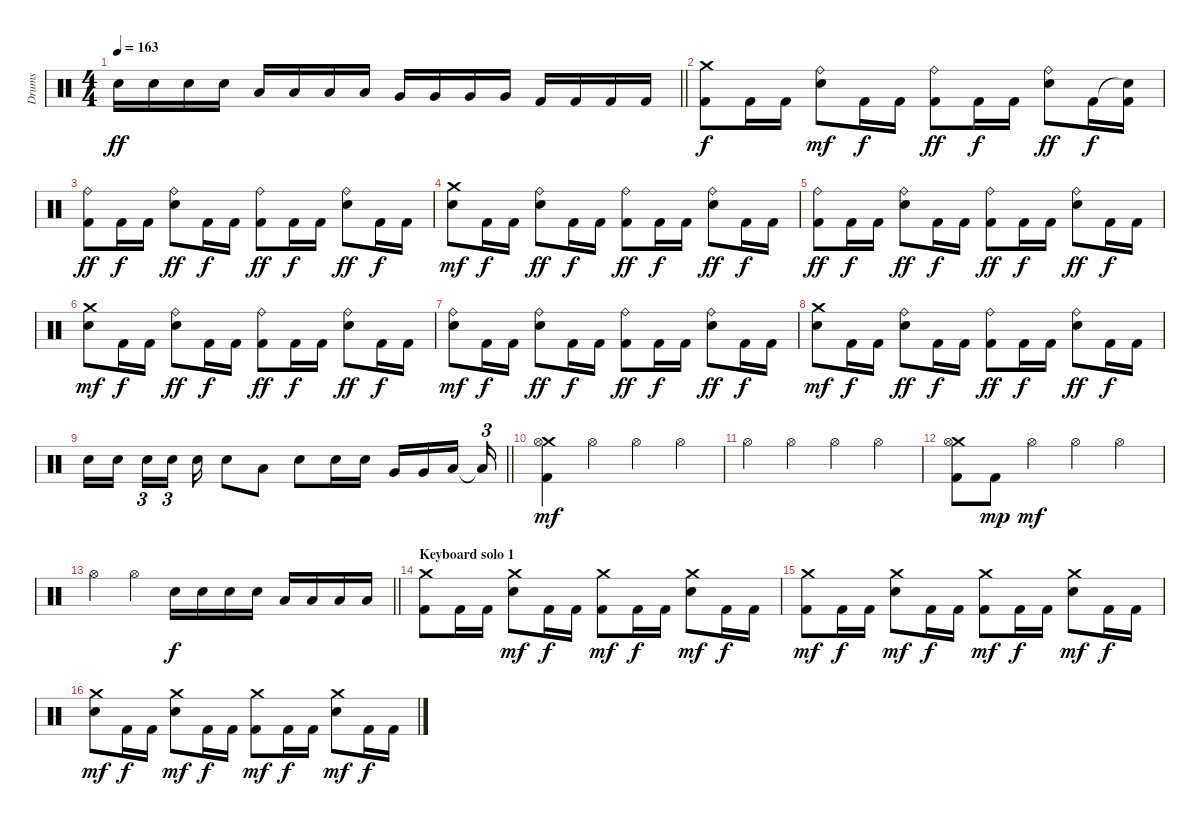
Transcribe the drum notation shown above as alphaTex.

\track ("Drums" "Drums") {instrument percussion}
\staff {score}
\articulation defaults
\ts (4 4)
\tempo 163
\clef neutral
\barLineRight lightlight
\ks c "Electric Snare (hit)".16{dy ff} "Electric Snare (hit)".16 "Electric Snare (hit)".16 "Electric Snare (hit)".16 "Low Tom (hit)".16 "Low Tom (hit)".16 "Low Tom (hit)".16 "Low Tom (hit)".16 "Very Low Tom (hit)".16 "Very Low Tom (hit)".16 "Very Low Tom (hit)".16 "Very Low Tom (hit)".16 "Kick (hit) 2".16 "Kick (hit) 2".16 "Kick (hit) 2".16 "Kick (hit) 2".16
|
("Crash medium (hit)" "Kick (hit) 2").8{dy f} "Kick (hit) 2".16 "Kick (hit) 2".16 ("Ride (bell)" "Electric Snare (hit)").8{dy mf} "Kick (hit) 2".16{dy f} "Kick (hit) 2".16 ("Ride (bell)" "Kick (hit) 2").8{dy ff} "Kick (hit) 2".16{dy f} "Kick (hit) 2".16 ("Ride (bell)" "Electric Snare (hit)").8{dy ff} "Kick (hit) 2".16{dy f} ("Snare (hit)"{t} "Kick (hit) 2").16 |
("Ride (bell)" "Kick (hit) 2").8{dy ff} "Kick (hit) 2".16{dy f} "Kick (hit) 2".16 ("Ride (bell)" "Electric Snare (hit)").8{dy ff} "Kick (hit) 2".16{dy f} "Kick (hit) 2".16 ("Ride (bell)" "Kick (hit) 2").8{dy ff} "Kick (hit) 2".16{dy f} "Kick (hit) 2".16 ("Ride (bell)" "Electric Snare (hit)").8{dy ff} "Kick (hit) 2".16{dy f} "Kick (hit) 2".16 |
("Crash medium (hit)" "Electric Snare (hit)").8{dy mf} "Kick (hit) 2".16{dy f} "Kick (hit) 2".16 ("Ride (bell)" "Electric Snare (hit)").8{dy ff} "Kick (hit) 2".16{dy f} "Kick (hit) 2".16 ("Ride (bell)" "Kick (hit) 2").8{dy ff} "Kick (hit) 2".16{dy f} "Kick (hit) 2".16 ("Ride (bell)" "Electric Snare (hit)").8{dy ff} "Kick (hit) 2".16{dy f} "Kick (hit) 2".16 |
("Ride (bell)" "Kick (hit) 2").8{dy ff} "Kick (hit) 2".16{dy f} "Kick (hit) 2".16 ("Ride (bell)" "Electric Snare (hit)").8{dy ff} "Kick (hit) 2".16{dy f} "Kick (hit) 2".16 ("Ride (bell)" "Kick (hit) 2").8{dy ff} "Kick (hit) 2".16{dy f} "Kick (hit) 2".16 ("Ride (bell)" "Electric Snare (hit)").8{dy ff} "Kick (hit) 2".16{dy f} "Kick (hit) 2".16 |
("Crash medium (hit)" "Electric Snare (hit)").8{dy mf} "Kick (hit) 2".16{dy f} "Kick (hit) 2".16 ("Ride (bell)" "Electric Snare (hit)").8{dy ff} "Kick (hit) 2".16{dy f} "Kick (hit) 2".16 ("Ride (bell)" "Kick (hit) 2").8{dy ff} "Kick (hit) 2".16{dy f} "Kick (hit) 2".16 ("Ride (bell)" "Electric Snare (hit)").8{dy ff} "Kick (hit) 2".16{dy f} "Kick (hit) 2".16 |
("Ride (bell)" "Electric Snare (hit)").8{dy mf} "Kick (hit) 2".16{dy f} "Kick (hit) 2".16 ("Ride (bell)" "Electric Snare (hit)").8{dy ff} "Kick (hit) 2".16{dy f} "Kick (hit) 2".16 ("Ride (bell)" "Kick (hit) 2").8{dy ff} "Kick (hit) 2".16{dy f} "Kick (hit) 2".16 ("Ride (bell)" "Electric Snare (hit)").8{dy ff} "Kick (hit) 2".16{dy f} "Kick (hit) 2".16 |
("Crash medium (hit)" "Electric Snare (hit)").8{dy mf} "Kick (hit) 2".16{dy f} "Kick (hit) 2".16 ("Ride (bell)" "Electric Snare (hit)").8{dy ff} "Kick (hit) 2".16{dy f} "Kick (hit) 2".16 ("Ride (bell)" "Kick (hit) 2").8{dy ff} "Kick (hit) 2".16{dy f} "Kick (hit) 2".16 ("Ride (bell)" "Electric Snare (hit)").8{dy ff} "Kick (hit) 2".16{dy f} "Kick (hit) 2".16 |
\barLineRight lightlight "Electric Snare (hit)".16 "Electric Snare (hit)".16{beam splitsecondary} "Electric Snare (hit)".16{tu (3 2)} "Electric Snare (hit)".16{tu (3 2) beam splitsecondary} "Electric Snare (hit)".16 "Electric Snare (hit)".8 "Low Tom (hit)".8 "Electric Snare (hit)".8 "Electric Snare (hit)".16 "Electric Snare (hit)".16 "Very Low Tom (hit)".16 "Very Low Tom (hit)".16 "Low Floor Tom (hit)".16{beam splitsecondary} "Low Floor Tom (hit)"{t}.16{tu (3 2)}
|
\section ("" "")
("Crash medium (hit)" "Hi-Hat (open)" "Kick (hit) 2").4{dy mf} "Hi-Hat (open)".4 "Hi-Hat (open)".4 "Hi-Hat (open)".4 |
"Hi-Hat (open)".4 "Hi-Hat (open)".4 "Hi-Hat (open)".4 "Hi-Hat (open)".4 |
("Crash medium (hit)" "Hi-Hat (open)" "Kick (hit) 2").8 "Kick (hit) 2".8{dy mp} "Hi-Hat (open)".4{dy mf} "Hi-Hat (open)".4 "Hi-Hat (open)".4 |
\barLineRight lightlight "Hi-Hat (open)".4 "Hi-Hat (open)".4 "Electric Snare (hit)".16{dy f} "Electric Snare (hit)".16 "Electric Snare (hit)".16 "Electric Snare (hit)".16 "Low Tom (hit)".16 "Low Tom (hit)".16 "Low Tom (hit)".16 "Low Tom (hit)".16
|
\section ("" "Keyboard solo 1")
("Crash medium (hit)" "Kick (hit) 2").8 "Kick (hit) 2".16 "Kick (hit) 2".16 ("Crash medium (hit)" "Electric Snare (hit)").8{dy mf} "Kick (hit) 2".16{dy f} "Kick (hit) 2".16 ("Crash medium (hit)" "Kick (hit) 2").8{dy mf} "Kick (hit) 2".16{dy f} "Kick (hit) 2".16 ("Crash medium (hit)" "Electric Snare (hit)").8{dy mf} "Kick (hit) 2".16{dy f} "Kick (hit) 2".16 |
("Crash medium (hit)" "Kick (hit) 2").8{dy mf} "Kick (hit) 2".16{dy f} "Kick (hit) 2".16 ("Crash medium (hit)" "Electric Snare (hit)").8{dy mf} "Kick (hit) 2".16{dy f} "Kick (hit) 2".16 ("Crash medium (hit)" "Kick (hit) 2").8{dy mf} "Kick (hit) 2".16{dy f} "Kick (hit) 2".16 ("Crash medium (hit)" "Electric Snare (hit)").8{dy mf} "Kick (hit) 2".16{dy f} "Kick (hit) 2".16 |
("Crash medium (hit)" "Electric Snare (hit)").8{dy mf} "Kick (hit) 2".16{dy f} "Kick (hit) 2".16 ("Crash medium (hit)" "Electric Snare (hit)").8{dy mf} "Kick (hit) 2".16{dy f} "Kick (hit) 2".16 ("Crash medium (hit)" "Kick (hit) 2").8{dy mf} "Kick (hit) 2".16{dy f} "Kick (hit) 2".16 ("Crash medium (hit)" "Electric Snare (hit)").8{dy mf} "Kick (hit) 2".16{dy f} "Kick (hit) 2".16
